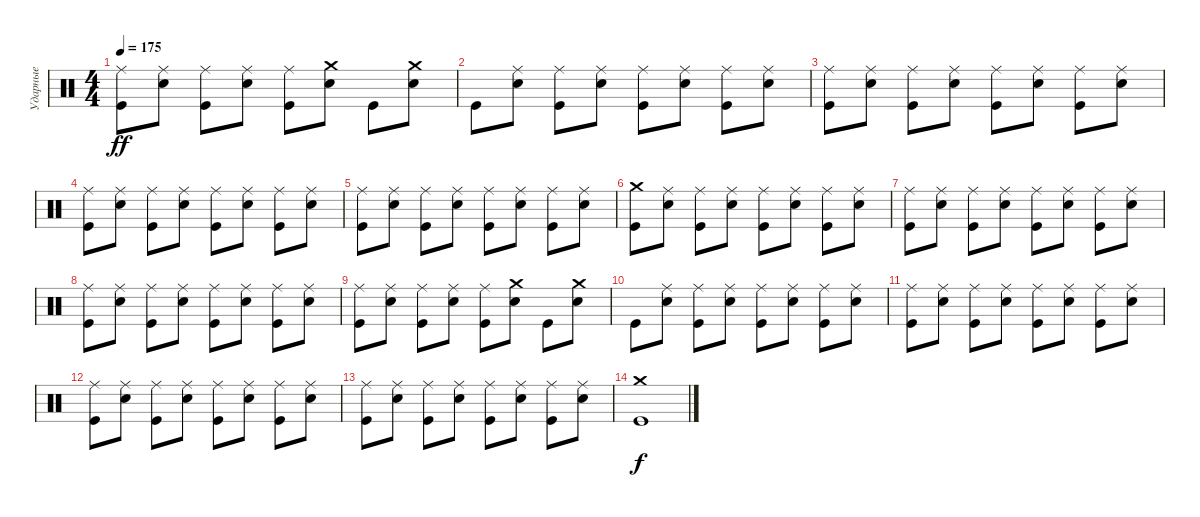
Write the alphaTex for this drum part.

\track ("Ударные" "Ударные") {instrument percussion}
\staff {score}
\articulation defaults
\ts (4 4)
\tempo 175
\clef neutral
\ks c
("Ride (middle)" "Kick (hit)").8{dy ff} ("Ride (middle)" "Electric Snare (hit)").8 ("Ride (middle)" "Kick (hit)").8 ("Ride (middle)" "Electric Snare (hit)").8 ("Ride (middle)" "Kick (hit)").8 ("Crash medium (hit)" "Electric Snare (hit)").8 "Kick (hit)".8 ("Crash medium (hit)" "Electric Snare (hit)").8 |
"Kick (hit)".8 ("Ride (middle)" "Electric Snare (hit)").8 ("Ride (middle)" "Kick (hit)").8 ("Ride (middle)" "Electric Snare (hit)").8 ("Ride (middle)" "Kick (hit)").8 ("Ride (middle)" "Electric Snare (hit)").8 ("Ride (middle)" "Kick (hit)").8 ("Ride (middle)" "Electric Snare (hit)").8 |
("Ride (middle)" "Kick (hit)").8 ("Ride (middle)" "Electric Snare (hit)").8 ("Ride (middle)" "Kick (hit)").8 ("Ride (middle)" "Electric Snare (hit)").8 ("Ride (middle)" "Kick (hit)").8 ("Ride (middle)" "Electric Snare (hit)").8 ("Ride (middle)" "Kick (hit)").8 ("Ride (middle)" "Electric Snare (hit)").8 |
("Ride (middle)" "Kick (hit)").8 ("Ride (middle)" "Electric Snare (hit)").8 ("Ride (middle)" "Kick (hit)").8 ("Ride (middle)" "Electric Snare (hit)").8 ("Ride (middle)" "Kick (hit)").8 ("Ride (middle)" "Electric Snare (hit)").8 ("Ride (middle)" "Kick (hit)").8 ("Ride (middle)" "Electric Snare (hit)").8 |
("Ride (middle)" "Kick (hit)").8 ("Ride (middle)" "Electric Snare (hit)").8 ("Ride (middle)" "Kick (hit)").8 ("Ride (middle)" "Electric Snare (hit)").8 ("Ride (middle)" "Kick (hit)").8 ("Ride (middle)" "Electric Snare (hit)").8 ("Ride (middle)" "Kick (hit)").8 ("Ride (middle)" "Electric Snare (hit)").8 |
("Crash medium (hit)" "Kick (hit)").8 ("Ride (middle)" "Electric Snare (hit)").8 ("Ride (middle)" "Kick (hit)").8 ("Ride (middle)" "Electric Snare (hit)").8 ("Ride (middle)" "Kick (hit)").8 ("Ride (middle)" "Electric Snare (hit)").8 ("Ride (middle)" "Kick (hit)").8 ("Ride (middle)" "Electric Snare (hit)").8 |
("Ride (middle)" "Kick (hit)").8 ("Ride (middle)" "Electric Snare (hit)").8 ("Ride (middle)" "Kick (hit)").8 ("Ride (middle)" "Electric Snare (hit)").8 ("Ride (middle)" "Kick (hit)").8 ("Ride (middle)" "Electric Snare (hit)").8 ("Ride (middle)" "Kick (hit)").8 ("Ride (middle)" "Electric Snare (hit)").8 |
("Ride (middle)" "Kick (hit)").8 ("Ride (middle)" "Electric Snare (hit)").8 ("Ride (middle)" "Kick (hit)").8 ("Ride (middle)" "Electric Snare (hit)").8 ("Ride (middle)" "Kick (hit)").8 ("Ride (middle)" "Electric Snare (hit)").8 ("Ride (middle)" "Kick (hit)").8 ("Ride (middle)" "Electric Snare (hit)").8 |
("Ride (middle)" "Kick (hit)").8 ("Ride (middle)" "Electric Snare (hit)").8 ("Ride (middle)" "Kick (hit)").8 ("Ride (middle)" "Electric Snare (hit)").8 ("Ride (middle)" "Kick (hit)").8 ("Crash medium (hit)" "Electric Snare (hit)").8 "Kick (hit)".8 ("Crash medium (hit)" "Electric Snare (hit)").8 |
"Kick (hit)".8 ("Ride (middle)" "Electric Snare (hit)").8 ("Ride (middle)" "Kick (hit)").8 ("Ride (middle)" "Electric Snare (hit)").8 ("Ride (middle)" "Kick (hit)").8 ("Ride (middle)" "Electric Snare (hit)").8 ("Ride (middle)" "Kick (hit)").8 ("Ride (middle)" "Electric Snare (hit)").8 |
("Ride (middle)" "Kick (hit)").8 ("Ride (middle)" "Electric Snare (hit)").8 ("Ride (middle)" "Kick (hit)").8 ("Ride (middle)" "Electric Snare (hit)").8 ("Ride (middle)" "Kick (hit)").8 ("Ride (middle)" "Electric Snare (hit)").8 ("Ride (middle)" "Kick (hit)").8 ("Ride (middle)" "Electric Snare (hit)").8 |
("Ride (middle)" "Kick (hit)").8 ("Ride (middle)" "Electric Snare (hit)").8 ("Ride (middle)" "Kick (hit)").8 ("Ride (middle)" "Electric Snare (hit)").8 ("Ride (middle)" "Kick (hit)").8 ("Ride (middle)" "Electric Snare (hit)").8 ("Ride (middle)" "Kick (hit)").8 ("Ride (middle)" "Electric Snare (hit)").8 |
("Ride (middle)" "Kick (hit)").8 ("Ride (middle)" "Electric Snare (hit)").8 ("Ride (middle)" "Kick (hit)").8 ("Ride (middle)" "Electric Snare (hit)").8 ("Ride (middle)" "Kick (hit)").8 ("Ride (middle)" "Electric Snare (hit)").8 ("Ride (middle)" "Kick (hit)").8 ("Ride (middle)" "Electric Snare (hit)").8 |
("Crash medium (hit)" "Kick (hit)").1{dy f}
